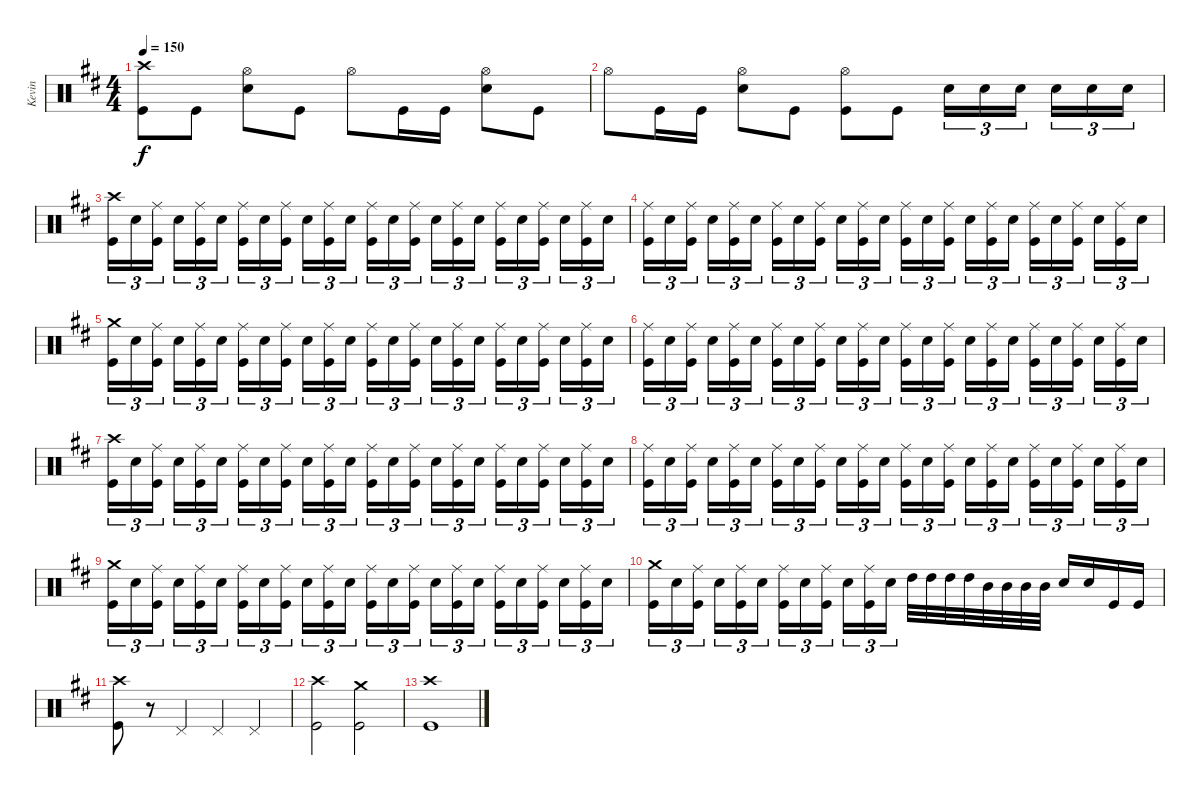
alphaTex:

\track ("Kevin" "Kevin") {instrument percussion}
\staff {score}
\articulation defaults
\ts (4 4)
\tempo 150
\clef neutral
\ks d
("Crash high (hit)" "Kick (hit)").8{dy f} "Kick (hit)".8 ("Hi-Hat (open)" "Snare (hit) 2").8 "Kick (hit)".8 "Hi-Hat (open)".8 "Kick (hit)".16 "Kick (hit)".16 ("Hi-Hat (open)" "Snare (hit) 2").8 "Kick (hit)".8 |
"Hi-Hat (open)".8 "Kick (hit)".16 "Kick (hit)".16 ("Hi-Hat (open)" "Snare (hit) 2").8 "Kick (hit)".8 ("Hi-Hat (open)" "Kick (hit)").8 "Kick (hit)".8 "Snare (hit) 2".16{tu (3 2)} "Snare (hit) 2".16{tu (3 2)} "Snare (hit) 2".16{tu (3 2) beam splitsecondary} "Snare (hit) 2".16{tu (3 2)} "Snare (hit) 2".16{tu (3 2)} "Snare (hit) 2".16{tu (3 2)} |
("Crash high (hit)" "Kick (hit)").16{tu (3 2)} "Snare (hit) 2".16{tu (3 2)} ("Ride (middle)" "Kick (hit)").16{tu (3 2) beam splitsecondary} "Snare (hit) 2".16{tu (3 2)} ("Ride (middle)" "Kick (hit)").16{tu (3 2)} "Snare (hit) 2".16{tu (3 2)} ("Ride (middle)" "Kick (hit)").16{tu (3 2)} "Snare (hit) 2".16{tu (3 2)} ("Ride (middle)" "Kick (hit)").16{tu (3 2) beam splitsecondary} "Snare (hit) 2".16{tu (3 2)} ("Ride (middle)" "Kick (hit)").16{tu (3 2)} "Snare (hit) 2".16{tu (3 2)} ("Ride (middle)" "Kick (hit)").16{tu (3 2)} "Snare (hit) 2".16{tu (3 2)} ("Ride (middle)" "Kick (hit)").16{tu (3 2) beam splitsecondary} "Snare (hit) 2".16{tu (3 2)} ("Ride (middle)" "Kick (hit)").16{tu (3 2)} "Snare (hit) 2".16{tu (3 2)} ("Ride (middle)" "Kick (hit)").16{tu (3 2)} "Snare (hit) 2".16{tu (3 2)} ("Ride (middle)" "Kick (hit)").16{tu (3 2) beam splitsecondary} "Snare (hit) 2".16{tu (3 2)} ("Ride (middle)" "Kick (hit)").16{tu (3 2)} "Snare (hit) 2".16{tu (3 2)} |
("Ride (middle)" "Kick (hit)").16{tu (3 2)} "Snare (hit) 2".16{tu (3 2)} ("Ride (middle)" "Kick (hit)").16{tu (3 2) beam splitsecondary} "Snare (hit) 2".16{tu (3 2)} ("Ride (middle)" "Kick (hit)").16{tu (3 2)} "Snare (hit) 2".16{tu (3 2)} ("Ride (middle)" "Kick (hit)").16{tu (3 2)} "Snare (hit) 2".16{tu (3 2)} ("Ride (middle)" "Kick (hit)").16{tu (3 2) beam splitsecondary} "Snare (hit) 2".16{tu (3 2)} ("Ride (middle)" "Kick (hit)").16{tu (3 2)} "Snare (hit) 2".16{tu (3 2)} ("Ride (middle)" "Kick (hit)").16{tu (3 2)} "Snare (hit) 2".16{tu (3 2)} ("Ride (middle)" "Kick (hit)").16{tu (3 2) beam splitsecondary} "Snare (hit) 2".16{tu (3 2)} ("Ride (middle)" "Kick (hit)").16{tu (3 2)} "Snare (hit) 2".16{tu (3 2)} ("Ride (middle)" "Kick (hit)").16{tu (3 2)} "Snare (hit) 2".16{tu (3 2)} ("Ride (middle)" "Kick (hit)").16{tu (3 2) beam splitsecondary} "Snare (hit) 2".16{tu (3 2)} ("Ride (middle)" "Kick (hit)").16{tu (3 2)} "Snare (hit) 2".16{tu (3 2)} |
("Crash medium (hit)" "Kick (hit)").16{tu (3 2)} "Snare (hit) 2".16{tu (3 2)} ("Ride (middle)" "Kick (hit)").16{tu (3 2) beam splitsecondary} "Snare (hit) 2".16{tu (3 2)} ("Ride (middle)" "Kick (hit)").16{tu (3 2)} "Snare (hit) 2".16{tu (3 2)} ("Ride (middle)" "Kick (hit)").16{tu (3 2)} "Snare (hit) 2".16{tu (3 2)} ("Ride (middle)" "Kick (hit)").16{tu (3 2) beam splitsecondary} "Snare (hit) 2".16{tu (3 2)} ("Ride (middle)" "Kick (hit)").16{tu (3 2)} "Snare (hit) 2".16{tu (3 2)} ("Ride (middle)" "Kick (hit)").16{tu (3 2)} "Snare (hit) 2".16{tu (3 2)} ("Ride (middle)" "Kick (hit)").16{tu (3 2) beam splitsecondary} "Snare (hit) 2".16{tu (3 2)} ("Ride (middle)" "Kick (hit)").16{tu (3 2)} "Snare (hit) 2".16{tu (3 2)} ("Ride (middle)" "Kick (hit)").16{tu (3 2)} "Snare (hit) 2".16{tu (3 2)} ("Ride (middle)" "Kick (hit)").16{tu (3 2) beam splitsecondary} "Snare (hit) 2".16{tu (3 2)} ("Ride (middle)" "Kick (hit)").16{tu (3 2)} "Snare (hit) 2".16{tu (3 2)} |
("Ride (middle)" "Kick (hit)").16{tu (3 2)} "Snare (hit) 2".16{tu (3 2)} ("Ride (middle)" "Kick (hit)").16{tu (3 2) beam splitsecondary} "Snare (hit) 2".16{tu (3 2)} ("Ride (middle)" "Kick (hit)").16{tu (3 2)} "Snare (hit) 2".16{tu (3 2)} ("Ride (middle)" "Kick (hit)").16{tu (3 2)} "Snare (hit) 2".16{tu (3 2)} ("Ride (middle)" "Kick (hit)").16{tu (3 2) beam splitsecondary} "Snare (hit) 2".16{tu (3 2)} ("Ride (middle)" "Kick (hit)").16{tu (3 2)} "Snare (hit) 2".16{tu (3 2)} ("Ride (middle)" "Kick (hit)").16{tu (3 2)} "Snare (hit) 2".16{tu (3 2)} ("Ride (middle)" "Kick (hit)").16{tu (3 2) beam splitsecondary} "Snare (hit) 2".16{tu (3 2)} ("Ride (middle)" "Kick (hit)").16{tu (3 2)} "Snare (hit) 2".16{tu (3 2)} ("Ride (middle)" "Kick (hit)").16{tu (3 2)} "Snare (hit) 2".16{tu (3 2)} ("Ride (middle)" "Kick (hit)").16{tu (3 2) beam splitsecondary} "Snare (hit) 2".16{tu (3 2)} ("Ride (middle)" "Kick (hit)").16{tu (3 2)} "Snare (hit) 2".16{tu (3 2)} |
("Crash high (hit)" "Kick (hit)").16{tu (3 2)} "Snare (hit) 2".16{tu (3 2)} ("Ride (middle)" "Kick (hit)").16{tu (3 2) beam splitsecondary} "Snare (hit) 2".16{tu (3 2)} ("Ride (middle)" "Kick (hit)").16{tu (3 2)} "Snare (hit) 2".16{tu (3 2)} ("Ride (middle)" "Kick (hit)").16{tu (3 2)} "Snare (hit) 2".16{tu (3 2)} ("Ride (middle)" "Kick (hit)").16{tu (3 2) beam splitsecondary} "Snare (hit) 2".16{tu (3 2)} ("Ride (middle)" "Kick (hit)").16{tu (3 2)} "Snare (hit) 2".16{tu (3 2)} ("Ride (middle)" "Kick (hit)").16{tu (3 2)} "Snare (hit) 2".16{tu (3 2)} ("Ride (middle)" "Kick (hit)").16{tu (3 2) beam splitsecondary} "Snare (hit) 2".16{tu (3 2)} ("Ride (middle)" "Kick (hit)").16{tu (3 2)} "Snare (hit) 2".16{tu (3 2)} ("Ride (middle)" "Kick (hit)").16{tu (3 2)} "Snare (hit) 2".16{tu (3 2)} ("Ride (middle)" "Kick (hit)").16{tu (3 2) beam splitsecondary} "Snare (hit) 2".16{tu (3 2)} ("Ride (middle)" "Kick (hit)").16{tu (3 2)} "Snare (hit) 2".16{tu (3 2)} |
("Ride (middle)" "Kick (hit)").16{tu (3 2)} "Snare (hit) 2".16{tu (3 2)} ("Ride (middle)" "Kick (hit)").16{tu (3 2) beam splitsecondary} "Snare (hit) 2".16{tu (3 2)} ("Ride (middle)" "Kick (hit)").16{tu (3 2)} "Snare (hit) 2".16{tu (3 2)} ("Ride (middle)" "Kick (hit)").16{tu (3 2)} "Snare (hit) 2".16{tu (3 2)} ("Ride (middle)" "Kick (hit)").16{tu (3 2) beam splitsecondary} "Snare (hit) 2".16{tu (3 2)} ("Ride (middle)" "Kick (hit)").16{tu (3 2)} "Snare (hit) 2".16{tu (3 2)} ("Ride (middle)" "Kick (hit)").16{tu (3 2)} "Snare (hit) 2".16{tu (3 2)} ("Ride (middle)" "Kick (hit)").16{tu (3 2) beam splitsecondary} "Snare (hit) 2".16{tu (3 2)} ("Ride (middle)" "Kick (hit)").16{tu (3 2)} "Snare (hit) 2".16{tu (3 2)} ("Ride (middle)" "Kick (hit)").16{tu (3 2)} "Snare (hit) 2".16{tu (3 2)} ("Ride (middle)" "Kick (hit)").16{tu (3 2) beam splitsecondary} "Snare (hit) 2".16{tu (3 2)} ("Ride (middle)" "Kick (hit)").16{tu (3 2)} "Snare (hit) 2".16{tu (3 2)} |
("Crash medium (hit)" "Kick (hit)").16{tu (3 2)} "Snare (hit) 2".16{tu (3 2)} ("Ride (middle)" "Kick (hit)").16{tu (3 2) beam splitsecondary} "Snare (hit) 2".16{tu (3 2)} ("Ride (middle)" "Kick (hit)").16{tu (3 2)} "Snare (hit) 2".16{tu (3 2)} ("Ride (middle)" "Kick (hit)").16{tu (3 2)} "Snare (hit) 2".16{tu (3 2)} ("Ride (middle)" "Kick (hit)").16{tu (3 2) beam splitsecondary} "Snare (hit) 2".16{tu (3 2)} ("Ride (middle)" "Kick (hit)").16{tu (3 2)} "Snare (hit) 2".16{tu (3 2)} ("Ride (middle)" "Kick (hit)").16{tu (3 2)} "Snare (hit) 2".16{tu (3 2)} ("Ride (middle)" "Kick (hit)").16{tu (3 2) beam splitsecondary} "Snare (hit) 2".16{tu (3 2)} ("Ride (middle)" "Kick (hit)").16{tu (3 2)} "Snare (hit) 2".16{tu (3 2)} ("Ride (middle)" "Kick (hit)").16{tu (3 2)} "Snare (hit) 2".16{tu (3 2)} ("Ride (middle)" "Kick (hit)").16{tu (3 2) beam splitsecondary} "Snare (hit) 2".16{tu (3 2)} ("Ride (middle)" "Kick (hit)").16{tu (3 2)} "Snare (hit) 2".16{tu (3 2)} |
("Crash medium (hit)" "Kick (hit)").16{tu (3 2)} "Snare (hit) 2".16{tu (3 2)} ("Ride (middle)" "Kick (hit)").16{tu (3 2) beam splitsecondary} "Snare (hit) 2".16{tu (3 2)} ("Ride (middle)" "Kick (hit)").16{tu (3 2)} "Snare (hit) 2".16{tu (3 2)} ("Ride (middle)" "Kick (hit)").16{tu (3 2)} "Snare (hit) 2".16{tu (3 2)} ("Ride (middle)" "Kick (hit)").16{tu (3 2) beam splitsecondary} "Snare (hit) 2".16{tu (3 2)} ("Ride (middle)" "Kick (hit)").16{tu (3 2)} "Snare (hit) 2".16{tu (3 2)} "High Tom (hit)".32 "High Tom (hit)".32 "High Tom (hit)".32 "High Tom (hit)".32 "Mid Tom (hit)".32 "Mid Tom (hit)".32 "Mid Tom (hit)".32 "Mid Tom (hit)".32 "Snare (hit) 2".16 "Snare (hit) 2".16 "Kick (hit)".16 "Kick (hit)".16 |
("Crash high (hit)" "Kick (hit)").8 r.8 "Pedal Hi-Hat (hit)".4 "Pedal Hi-Hat (hit)".4 "Pedal Hi-Hat (hit)".4 |
("Crash high (hit)" "Kick (hit)").2 ("Crash medium (hit)" "Kick (hit)").2 |
("Crash high (hit)" "Kick (hit)").1
